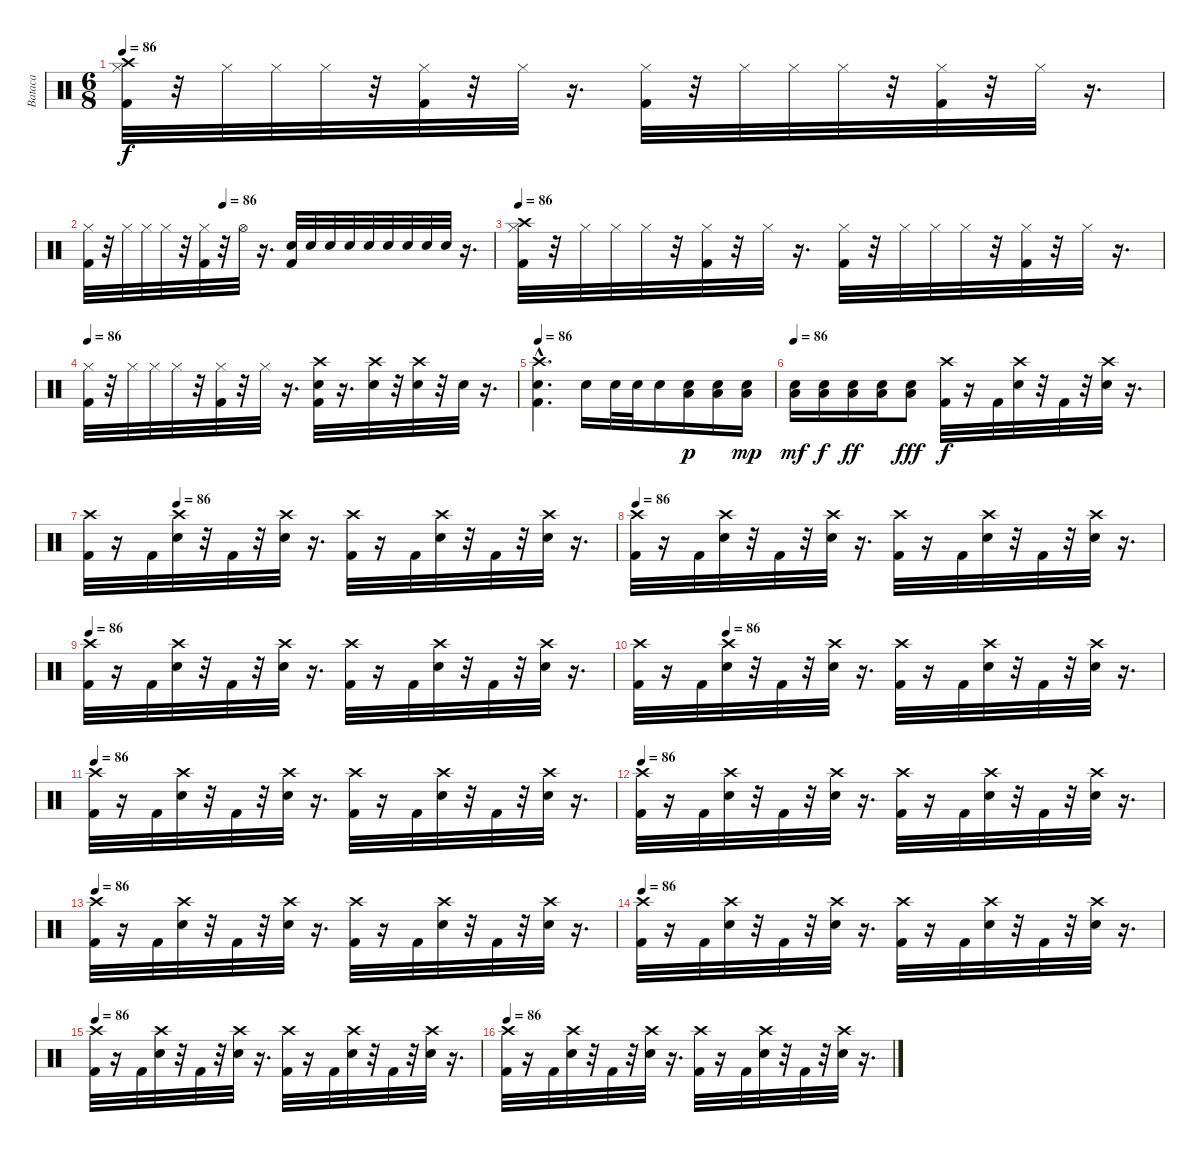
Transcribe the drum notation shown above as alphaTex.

\track ("Bataca" "Bataca") {instrument percussion}
\staff {score}
\articulation defaults
\ts (6 8)
\tempo 86
\clef neutral
\ks c
("Crash high (hit)" "Hi-Hat (closed)" "Kick (hit) 2").32{dy f} r.32 "Hi-Hat (closed)".32 "Hi-Hat (closed)".32 "Hi-Hat (closed)".32 r.32 ("Hi-Hat (closed)" "Kick (hit) 2").32 r.32 "Hi-Hat (closed)".32 r.16{d} ("Hi-Hat (closed)" "Kick (hit) 2").32 r.32 "Hi-Hat (closed)".32 "Hi-Hat (closed)".32 "Hi-Hat (closed)".32 r.32 ("Hi-Hat (closed)" "Kick (hit) 2").32 r.32 "Hi-Hat (closed)".32 r.16{d} |
\tempo (86 0.3333333333333333)
("Hi-Hat (closed)" "Kick (hit) 2").32 r.32 "Hi-Hat (closed)".32 "Hi-Hat (closed)".32 "Hi-Hat (closed)".32 r.32 ("Hi-Hat (closed)" "Kick (hit) 2").32 r.32 "Hi-Hat (open)".32 r.16{d} ("Snare (hit) 2" "Kick (hit) 2").32 "Snare (hit) 2".32 "Snare (hit) 2".32 "Snare (hit) 2".32 "Snare (hit) 2".32 "Snare (hit) 2".32 "Snare (hit) 2".32 "Snare (hit) 2".32 "Snare (hit) 2".32 r.16{d} |
\tempo 86
("Crash high (hit)" "Hi-Hat (closed)" "Kick (hit) 2").32 r.32 "Hi-Hat (closed)".32 "Hi-Hat (closed)".32 "Hi-Hat (closed)".32 r.32 ("Hi-Hat (closed)" "Kick (hit) 2").32 r.32 "Hi-Hat (closed)".32 r.16{d} ("Hi-Hat (closed)" "Kick (hit) 2").32 r.32 "Hi-Hat (closed)".32 "Hi-Hat (closed)".32 "Hi-Hat (closed)".32 r.32 ("Hi-Hat (closed)" "Kick (hit) 2").32 r.32 "Hi-Hat (closed)".32 r.16{d} |
\tempo 86
("Hi-Hat (closed)" "Kick (hit) 2").32 r.32 "Hi-Hat (closed)".32 "Hi-Hat (closed)".32 "Hi-Hat (closed)".32 r.32 ("Hi-Hat (closed)" "Kick (hit) 2").32 r.32 "Hi-Hat (closed)".32 r.16{d} ("Crash high (hit)" "Snare (hit) 2" "Kick (hit) 2").32 r.16{d} ("Crash high (hit)" "Snare (hit) 2").32 r.32 ("Crash high (hit)" "Snare (hit) 2").32 r.32 "Snare (hit) 2".32 r.16{d} |
\tempo 86
("Crash high (hit)"{hac} "Snare (hit) 2"{hac} "Kick (hit) 2"{hac}).4{d} "Snare (hit) 2".16 "Snare (hit) 2".32 "Snare (hit) 2".32 "Snare (hit) 2".16 ("Snare (hit) 2" "Low Floor Tom (hit)").16{dy p} ("Snare (hit) 2" "Low Floor Tom (hit)").16 ("Snare (hit) 2" "Low Floor Tom (hit)").16{dy mp} |
\tempo 86
("Snare (hit) 2" "Low Floor Tom (hit)").16{dy mf} ("Snare (hit) 2" "Low Floor Tom (hit)").16{dy f} ("Snare (hit) 2" "Low Floor Tom (hit)").16{dy ff} ("Snare (hit) 2" "Low Floor Tom (hit)").16 ("Snare (hit) 2" "Low Floor Tom (hit)").8{dy fff} ("Crash high (hit)" "Kick (hit) 2").32{dy f} r.16 "Kick (hit) 2".32 ("Crash high (hit)" "Snare (hit) 2").32 r.32 "Kick (hit) 2".32 r.32 ("Crash high (hit)" "Snare (hit) 2").32 r.16{d} |
\tempo (86 0.16666666666666666)
("Crash high (hit)" "Kick (hit) 2").32 r.16 "Kick (hit) 2".32 ("Crash high (hit)" "Snare (hit) 2").32 r.32 "Kick (hit) 2".32 r.32 ("Crash high (hit)" "Snare (hit) 2").32 r.16{d} ("Crash high (hit)" "Kick (hit) 2").32 r.16 "Kick (hit) 2".32 ("Crash high (hit)" "Snare (hit) 2").32 r.32 "Kick (hit) 2".32 r.32 ("Crash high (hit)" "Snare (hit) 2").32 r.16{d} |
\tempo 86
("Crash high (hit)" "Kick (hit) 2").32 r.16 "Kick (hit) 2".32 ("Crash high (hit)" "Snare (hit) 2").32 r.32 "Kick (hit) 2".32 r.32 ("Crash high (hit)" "Snare (hit) 2").32 r.16{d} ("Crash high (hit)" "Kick (hit) 2").32 r.16 "Kick (hit) 2".32 ("Crash high (hit)" "Snare (hit) 2").32 r.32 "Kick (hit) 2".32 r.32 ("Crash high (hit)" "Snare (hit) 2").32 r.16{d} |
\tempo 86
("Crash high (hit)" "Kick (hit) 2").32 r.16 "Kick (hit) 2".32 ("Crash high (hit)" "Snare (hit) 2").32 r.32 "Kick (hit) 2".32 r.32 ("Crash high (hit)" "Snare (hit) 2").32 r.16{d} ("Crash high (hit)" "Kick (hit) 2").32 r.16 "Kick (hit) 2".32 ("Crash high (hit)" "Snare (hit) 2").32 r.32 "Kick (hit) 2".32 r.32 ("Crash high (hit)" "Snare (hit) 2").32 r.16{d} |
\tempo (86 0.16666666666666666)
("Crash high (hit)" "Kick (hit) 2").32 r.16 "Kick (hit) 2".32 ("Crash high (hit)" "Snare (hit) 2").32 r.32 "Kick (hit) 2".32 r.32 ("Crash high (hit)" "Snare (hit) 2").32 r.16{d} ("Crash high (hit)" "Kick (hit) 2").32 r.16 "Kick (hit) 2".32 ("Crash high (hit)" "Snare (hit) 2").32 r.32 "Kick (hit) 2".32 r.32 ("Crash high (hit)" "Snare (hit) 2").32 r.16{d} |
\tempo 86
("Crash high (hit)" "Kick (hit) 2").32 r.16 "Kick (hit) 2".32 ("Crash high (hit)" "Snare (hit) 2").32 r.32 "Kick (hit) 2".32 r.32 ("Crash high (hit)" "Snare (hit) 2").32 r.16{d} ("Crash high (hit)" "Kick (hit) 2").32 r.16 "Kick (hit) 2".32 ("Crash high (hit)" "Snare (hit) 2").32 r.32 "Kick (hit) 2".32 r.32 ("Crash high (hit)" "Snare (hit) 2").32 r.16{d} |
\tempo 86
("Crash high (hit)" "Kick (hit) 2").32 r.16 "Kick (hit) 2".32 ("Crash high (hit)" "Snare (hit) 2").32 r.32 "Kick (hit) 2".32 r.32 ("Crash high (hit)" "Snare (hit) 2").32 r.16{d} ("Crash high (hit)" "Kick (hit) 2").32 r.16 "Kick (hit) 2".32 ("Crash high (hit)" "Snare (hit) 2").32 r.32 "Kick (hit) 2".32 r.32 ("Crash high (hit)" "Snare (hit) 2").32 r.16{d} |
\tempo 86
("Crash high (hit)" "Kick (hit) 2").32 r.16 "Kick (hit) 2".32 ("Crash high (hit)" "Snare (hit) 2").32 r.32 "Kick (hit) 2".32 r.32 ("Crash high (hit)" "Snare (hit) 2").32 r.16{d} ("Crash high (hit)" "Kick (hit) 2").32 r.16 "Kick (hit) 2".32 ("Crash high (hit)" "Snare (hit) 2").32 r.32 "Kick (hit) 2".32 r.32 ("Crash high (hit)" "Snare (hit) 2").32 r.16{d} |
\tempo 86
("Crash high (hit)" "Kick (hit) 2").32 r.16 "Kick (hit) 2".32 ("Crash high (hit)" "Snare (hit) 2").32 r.32 "Kick (hit) 2".32 r.32 ("Crash high (hit)" "Snare (hit) 2").32 r.16{d} ("Crash high (hit)" "Kick (hit) 2").32 r.16 "Kick (hit) 2".32 ("Crash high (hit)" "Snare (hit) 2").32 r.32 "Kick (hit) 2".32 r.32 ("Crash high (hit)" "Snare (hit) 2").32 r.16{d} |
\tempo 86
("Crash high (hit)" "Kick (hit) 2").32 r.16 "Kick (hit) 2".32 ("Crash high (hit)" "Snare (hit) 2").32 r.32 "Kick (hit) 2".32 r.32 ("Crash high (hit)" "Snare (hit) 2").32 r.16{d} ("Crash high (hit)" "Kick (hit) 2").32 r.16 "Kick (hit) 2".32 ("Crash high (hit)" "Snare (hit) 2").32 r.32 "Kick (hit) 2".32 r.32 ("Crash high (hit)" "Snare (hit) 2").32 r.16{d} |
\tempo 86
("Crash high (hit)" "Kick (hit) 2").32 r.16 "Kick (hit) 2".32 ("Crash high (hit)" "Snare (hit) 2").32 r.32 "Kick (hit) 2".32 r.32 ("Crash high (hit)" "Snare (hit) 2").32 r.16{d} ("Crash high (hit)" "Kick (hit) 2").32 r.16 "Kick (hit) 2".32 ("Crash high (hit)" "Snare (hit) 2").32 r.32 "Kick (hit) 2".32 r.32 ("Crash high (hit)" "Snare (hit) 2").32 r.16{d}
